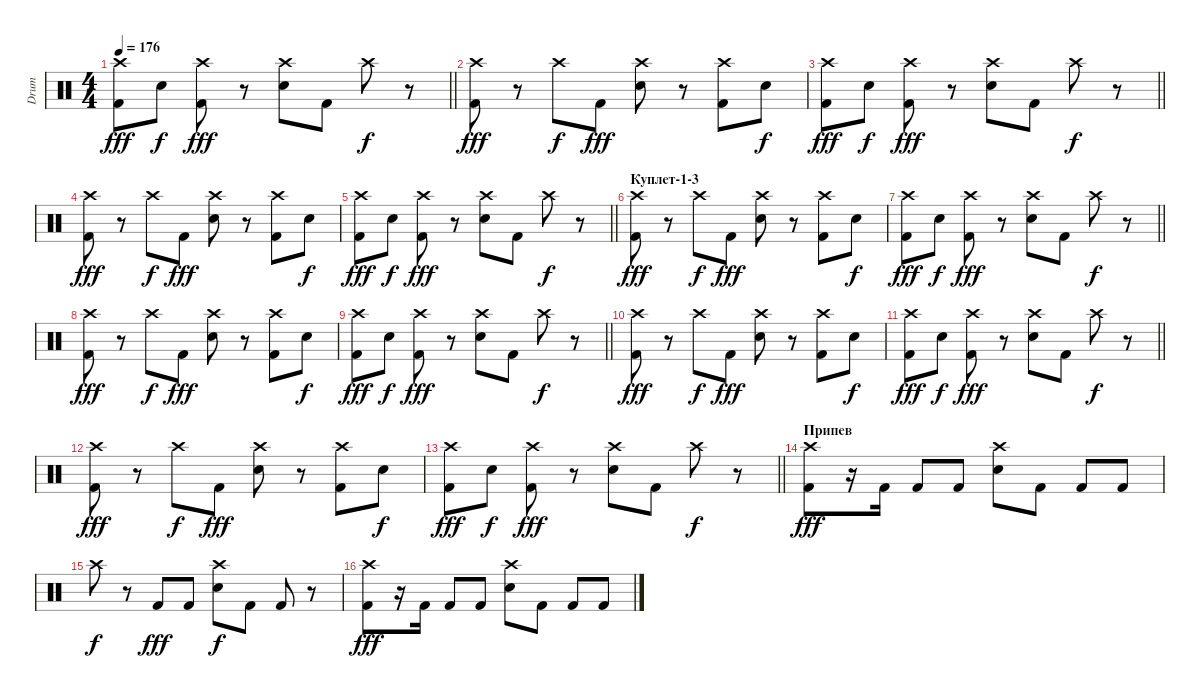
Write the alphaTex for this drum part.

\track ("Drum" "Drum") {instrument percussion}
\staff {score}
\articulation defaults
\ts (4 4)
\tempo 176
\clef neutral
\barLineRight lightlight
\ks c
("Kick (hit) 2" "Crash high (hit)").8{dy fff} "Electric Snare (hit)".8{dy f} ("Kick (hit) 2" "Crash high (hit)").8{dy fff} r.8 ("Snare (hit) 2" "Crash high (hit)").8 "Kick (hit) 2".8 "Crash high (hit)".8{dy f} r.8 |
("Kick (hit) 2" "Crash high (hit)").8{dy fff} r.8 "Crash high (hit)".8{dy f} "Kick (hit) 2".8{dy fff} ("Snare (hit) 2" "Crash high (hit)").8 r.8 ("Kick (hit) 2" "Crash high (hit)").8 "Electric Snare (hit)".8{dy f} |
\barLineRight lightlight
("Kick (hit) 2" "Crash high (hit)").8{dy fff} "Electric Snare (hit)".8{dy f} ("Kick (hit) 2" "Crash high (hit)").8{dy fff} r.8 ("Snare (hit) 2" "Crash high (hit)").8 "Kick (hit) 2".8 "Crash high (hit)".8{dy f} r.8 |
("Kick (hit) 2" "Crash high (hit)").8{dy fff} r.8 "Crash high (hit)".8{dy f} "Kick (hit) 2".8{dy fff} ("Snare (hit) 2" "Crash high (hit)").8 r.8 ("Kick (hit) 2" "Crash high (hit)").8 "Electric Snare (hit)".8{dy f} |
\barLineRight lightlight
("Kick (hit) 2" "Crash high (hit)").8{dy fff} "Electric Snare (hit)".8{dy f} ("Kick (hit) 2" "Crash high (hit)").8{dy fff} r.8 ("Snare (hit) 2" "Crash high (hit)").8 "Kick (hit) 2".8 "Crash high (hit)".8{dy f} r.8 |
\section ("" "Куплет-1-3")
("Kick (hit) 2" "Crash high (hit)").8{dy fff} r.8 "Crash high (hit)".8{dy f} "Kick (hit) 2".8{dy fff} ("Snare (hit) 2" "Crash high (hit)").8 r.8 ("Kick (hit) 2" "Crash high (hit)").8 "Electric Snare (hit)".8{dy f} |
\barLineRight lightlight
("Kick (hit) 2" "Crash high (hit)").8{dy fff} "Electric Snare (hit)".8{dy f} ("Kick (hit) 2" "Crash high (hit)").8{dy fff} r.8 ("Snare (hit) 2" "Crash high (hit)").8 "Kick (hit) 2".8 "Crash high (hit)".8{dy f} r.8 |
("Kick (hit) 2" "Crash high (hit)").8{dy fff} r.8 "Crash high (hit)".8{dy f} "Kick (hit) 2".8{dy fff} ("Snare (hit) 2" "Crash high (hit)").8 r.8 ("Kick (hit) 2" "Crash high (hit)").8 "Electric Snare (hit)".8{dy f} |
\barLineRight lightlight
("Kick (hit) 2" "Crash high (hit)").8{dy fff} "Electric Snare (hit)".8{dy f} ("Kick (hit) 2" "Crash high (hit)").8{dy fff} r.8 ("Snare (hit) 2" "Crash high (hit)").8 "Kick (hit) 2".8 "Crash high (hit)".8{dy f} r.8 |
("Kick (hit) 2" "Crash high (hit)").8{dy fff} r.8 "Crash high (hit)".8{dy f} "Kick (hit) 2".8{dy fff} ("Snare (hit) 2" "Crash high (hit)").8 r.8 ("Kick (hit) 2" "Crash high (hit)").8 "Electric Snare (hit)".8{dy f} |
\barLineRight lightlight
("Kick (hit) 2" "Crash high (hit)").8{dy fff} "Electric Snare (hit)".8{dy f} ("Kick (hit) 2" "Crash high (hit)").8{dy fff} r.8 ("Snare (hit) 2" "Crash high (hit)").8 "Kick (hit) 2".8 "Crash high (hit)".8{dy f} r.8 |
("Kick (hit) 2" "Crash high (hit)").8{dy fff} r.8 "Crash high (hit)".8{dy f} "Kick (hit) 2".8{dy fff} ("Snare (hit) 2" "Crash high (hit)").8 r.8 ("Kick (hit) 2" "Crash high (hit)").8 "Electric Snare (hit)".8{dy f} |
\barLineRight lightlight
("Kick (hit) 2" "Crash high (hit)").8{dy fff} "Electric Snare (hit)".8{dy f} ("Kick (hit) 2" "Crash high (hit)").8{dy fff} r.8 ("Snare (hit) 2" "Crash high (hit)").8 "Kick (hit) 2".8 "Crash high (hit)".8{dy f} r.8 |
\section ("" "Припев")
("Kick (hit) 2" "Crash high (hit)").8{dy fff} r.16 "Kick (hit) 2".16 "Kick (hit) 2".8 "Kick (hit) 2".8 ("Snare (hit) 2" "Crash high (hit)").8 "Kick (hit) 2".8 "Kick (hit) 2".8 "Kick (hit) 2".8 |
"Crash high (hit)".8{dy f} r.8 "Kick (hit) 2".8{dy fff} "Kick (hit) 2".8 ("Crash high (hit)" "Snare (hit) 2").8{dy f} "Kick (hit) 2".8 "Kick (hit) 2".8 r.8 |
("Kick (hit) 2" "Crash high (hit)").8{dy fff} r.16 "Kick (hit) 2".16 "Kick (hit) 2".8 "Kick (hit) 2".8 ("Snare (hit) 2" "Crash high (hit)").8 "Kick (hit) 2".8 "Kick (hit) 2".8 "Kick (hit) 2".8
